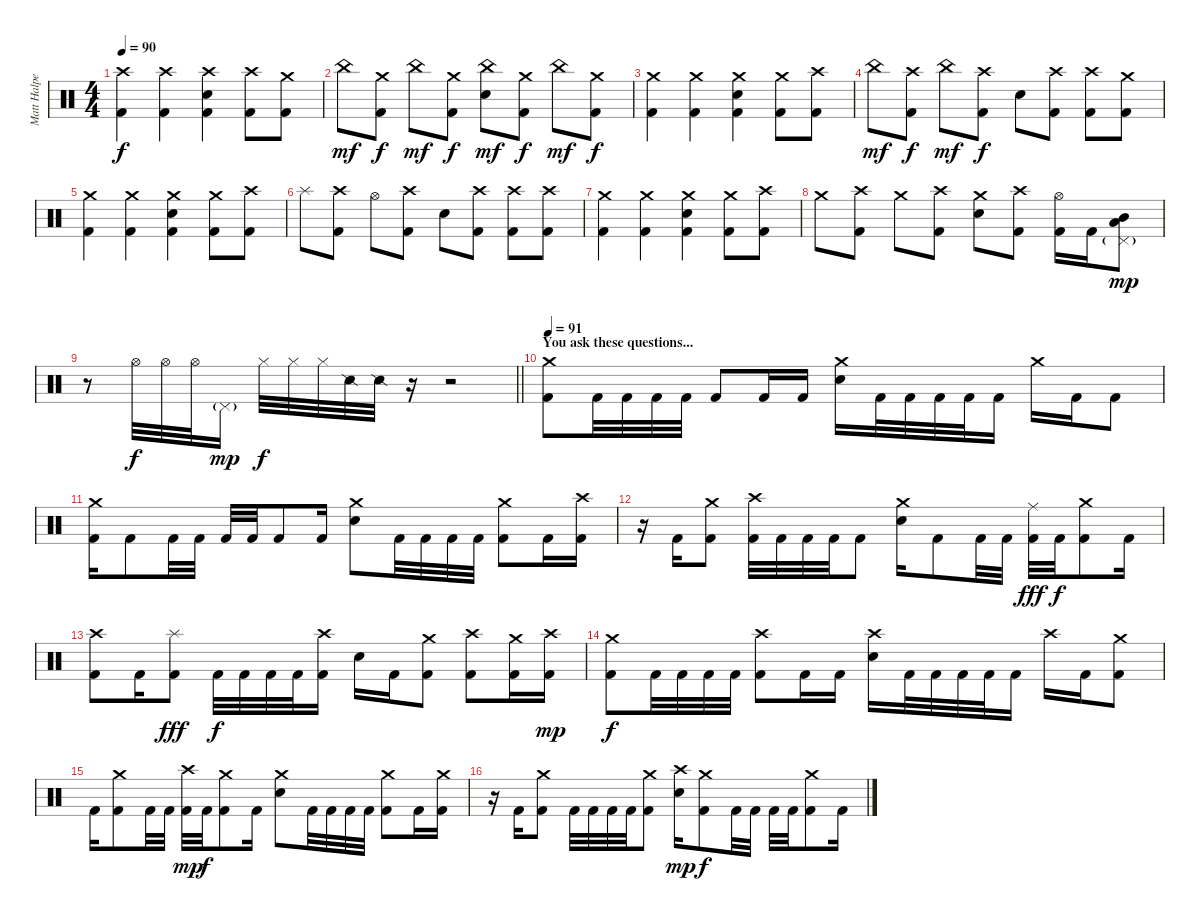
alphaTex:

\track ("Matt Halpern - Drums" "Matt Halpe") {instrument percussion}
\staff {score}
\articulation defaults
\ts (4 4)
\tempo 90
\clef neutral
\ks c
("Crash high (hit)" "Kick (hit) 2").4{dy f} ("Crash high (hit)" "Kick (hit) 2").4 ("Crash high (hit)" "Electric Snare (hit)" "Kick (hit) 2").4 ("Crash high (hit)" "Kick (hit) 2").8 ("Crash medium (hit)" "Kick (hit) 2").8 |
"China (hit)".8{dy mf} ("Crash medium (hit)" "Kick (hit) 2").8{dy f} "China (hit)".8{dy mf} ("Crash medium (hit)" "Kick (hit) 2").8{dy f} ("China (hit)" "Electric Snare (hit)").8{dy mf} ("Crash medium (hit)" "Kick (hit) 2").8{dy f} "China (hit)".8{dy mf} ("Crash medium (hit)" "Kick (hit) 2").8{dy f} |
("Crash medium (hit)" "Kick (hit) 2").4 ("Crash medium (hit)" "Kick (hit) 2").4 ("Crash medium (hit)" "Electric Snare (hit)" "Kick (hit) 2").4 ("Crash medium (hit)" "Kick (hit) 2").8 ("Crash high (hit)" "Kick (hit) 2").8 |
"China (hit)".8{dy mf} ("Crash high (hit)" "Kick (hit) 2").8{dy f} "China (hit)".8{dy mf} ("Crash high (hit)" "Kick (hit) 2").8{dy f} "Electric Snare (hit)".8 ("Crash high (hit)" "Kick (hit) 2").8 ("Crash high (hit)" "Kick (hit) 2").8 ("Crash medium (hit)" "Kick (hit) 2").8 |
("Crash medium (hit)" "Kick (hit) 2").4 ("Crash medium (hit)" "Kick (hit) 2").4 ("Crash medium (hit)" "Electric Snare (hit)" "Kick (hit) 2").4 ("Crash medium (hit)" "Kick (hit) 2").8 ("Crash high (hit)" "Kick (hit) 2").8 |
"Splash (hit)".8 ("Crash high (hit)" "Kick (hit) 2").8 "Hi-Hat (open)".8 ("Crash high (hit)" "Kick (hit) 2").8 "Electric Snare (hit)".8 ("Crash high (hit)" "Kick (hit) 2").8 ("Crash high (hit)" "Kick (hit) 2").8 ("Crash high (hit)" "Kick (hit) 2").8 |
("Crash medium (hit)" "Kick (hit) 2").4 ("Crash medium (hit)" "Kick (hit) 2").4 ("Crash medium (hit)" "Electric Snare (hit)" "Kick (hit) 2").4 ("Crash medium (hit)" "Kick (hit) 2").8 ("Crash high (hit)" "Kick (hit) 2").8 |
"Crash medium (hit)".8 ("Crash high (hit)" "Kick (hit) 2").8 "Crash medium (hit)".8 ("Crash high (hit)" "Kick (hit) 2").8 ("Crash medium (hit)" "Electric Snare (hit)").8 ("Crash high (hit)" "Kick (hit) 2").8 ("Hi-Hat (open)" "Kick (hit) 2").16 "Kick (hit) 2".16 ("Mid Tom (hit)" "Low Tom (hit)" "Pedal Hi-Hat (hit)"{g}).8{dy mp} |
\barLineRight lightlight
r.8 "Hi-Hat (open)".32{dy f volume 13} "Hi-Hat (open)".32 "Hi-Hat (open)".32 "Pedal Hi-Hat (hit)"{g}.16{dy mp} "Hi-Hat (closed)".32{dy f} "Hi-Hat (closed)".32 "Hi-Hat (closed)".32 "Snare (side stick) 2".32 "Snare (side stick) 2".32 r.16 r.2 |
\section ("" "You ask these questions...")
\tempo 91
("Crash medium (hit)" "Kick (hit) 2").8{volume 16} "Kick (hit) 2".32 "Kick (hit) 2".32 "Kick (hit) 2".32 "Kick (hit) 2".32 "Kick (hit) 2".8 "Kick (hit) 2".16 "Kick (hit) 2".16 ("Crash medium (hit)" "Electric Snare (hit)").16 "Kick (hit) 2".32 "Kick (hit) 2".32 "Kick (hit) 2".32 "Kick (hit) 2".32 "Kick (hit) 2".16 "Crash medium (hit)".16 "Kick (hit) 2".16 "Kick (hit) 2".8 |
("Crash medium (hit)" "Kick (hit) 2").16 "Kick (hit) 2".8 "Kick (hit) 2".32 "Kick (hit) 2".32 "Kick (hit) 2".32 "Kick (hit) 2".32 "Kick (hit) 2".8 "Kick (hit) 2".16 ("Crash medium (hit)" "Electric Snare (hit)").8 "Kick (hit) 2".32 "Kick (hit) 2".32 "Kick (hit) 2".32 "Kick (hit) 2".32 ("Crash medium (hit)" "Kick (hit) 2").8 "Kick (hit) 2".16 ("Crash high (hit)" "Kick (hit) 2").16 |
r.16 "Kick (hit) 2".16 ("Crash medium (hit)" "Kick (hit) 2").8 ("Crash high (hit)" "Kick (hit) 2").32 "Kick (hit) 2".32 "Kick (hit) 2".32 "Kick (hit) 2".32 "Kick (hit) 2".8 ("Crash medium (hit)" "Electric Snare (hit)").16 "Kick (hit) 2".8 "Kick (hit) 2".32 "Kick (hit) 2".32 ("Ride (middle)" "Kick (hit) 2").32{dy fff} "Kick (hit) 2".32{dy f} ("Crash medium (hit)" "Kick (hit) 2").8 "Kick (hit) 2".16 |
("Crash high (hit)" "Kick (hit) 2").8 "Kick (hit) 2".16 ("Splash (hit)" "Kick (hit) 2").8{dy fff} "Kick (hit) 2".32{dy f} "Kick (hit) 2".32 "Kick (hit) 2".32 "Kick (hit) 2".32 ("Crash high (hit)" "Kick (hit) 2").16 "Electric Snare (hit)".16 "Kick (hit) 2".16 ("Crash medium (hit)" "Kick (hit) 2").8 ("Crash high (hit)" "Kick (hit) 2").8 ("Crash medium (hit)" "Kick (hit) 2").16 ("Crash high (hit)" "Kick (hit) 2").16{dy mp} |
("Crash medium (hit)" "Kick (hit) 2").8{dy f} "Kick (hit) 2".32 "Kick (hit) 2".32 "Kick (hit) 2".32 "Kick (hit) 2".32 ("Crash high (hit)" "Kick (hit) 2").8 "Kick (hit) 2".16 "Kick (hit) 2".16 ("Crash high (hit)" "Electric Snare (hit)").16 "Kick (hit) 2".32 "Kick (hit) 2".32 "Kick (hit) 2".32 "Kick (hit) 2".32 "Kick (hit) 2".16 "Crash high (hit)".16 "Kick (hit) 2".16 ("Crash medium (hit)" "Kick (hit) 2").8 |
"Kick (hit) 2".16 ("Crash medium (hit)" "Kick (hit) 2").8 "Kick (hit) 2".32 "Kick (hit) 2".32 ("Crash high (hit)" "Kick (hit) 2").32{dy mp} "Kick (hit) 2".32{dy f} ("Crash medium (hit)" "Kick (hit) 2").8 "Kick (hit) 2".16 ("Crash medium (hit)" "Electric Snare (hit)").8 "Kick (hit) 2".32 "Kick (hit) 2".32 "Kick (hit) 2".32 "Kick (hit) 2".32 ("Crash medium (hit)" "Kick (hit) 2").8 "Kick (hit) 2".16 ("Crash medium (hit)" "Kick (hit) 2").16 |
r.16 "Kick (hit) 2".16 ("Crash medium (hit)" "Kick (hit) 2").8 "Kick (hit) 2".32 "Kick (hit) 2".32 "Kick (hit) 2".32 "Kick (hit) 2".32 ("Crash medium (hit)" "Kick (hit) 2").8 ("Crash high (hit)" "Electric Snare (hit)").16{dy mp} ("Crash medium (hit)" "Kick (hit) 2").8{dy f} "Kick (hit) 2".32 "Kick (hit) 2".32 "Kick (hit) 2".32 "Kick (hit) 2".32 ("Crash medium (hit)" "Kick (hit) 2").8 "Kick (hit) 2".16
